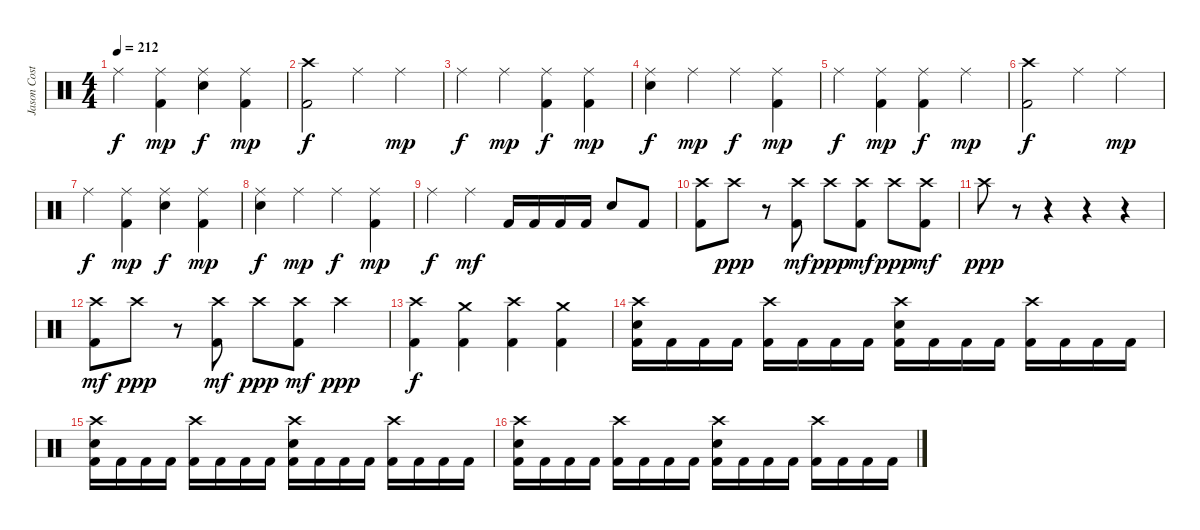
\track ("Jason Costa" "Jason Cost") {instrument percussion}
\staff {score}
\articulation defaults
\ts (4 4)
\tempo 212
\clef neutral
\ks c "Ride (middle)".4{dy f}
("Ride (middle)" "Kick (hit) 2").4{dy mp} ("Ride (middle)" "Electric Snare (hit)").4{dy f} ("Ride (middle)" "Kick (hit) 2").4{dy mp} |
("Crash high (hit)" "Kick (hit) 2").2{dy f} "Ride (middle)".4 "Ride (middle)".4{dy mp} |
"Ride (middle)".4{dy f} "Ride (middle)".4{dy mp} ("Ride (middle)" "Kick (hit) 2").4{dy f} ("Ride (middle)" "Kick (hit) 2").4{dy mp} |
("Ride (middle)" "Electric Snare (hit)").4{dy f} "Ride (middle)".4{dy mp} "Ride (middle)".4{dy f} ("Ride (middle)" "Kick (hit) 2").4{dy mp} |
"Ride (middle)".4{dy f} ("Ride (middle)" "Kick (hit) 2").4{dy mp} ("Ride (middle)" "Kick (hit) 2").4{dy f} "Ride (middle)".4{dy mp} |
("Crash high (hit)" "Kick (hit) 2").2{dy f} "Ride (middle)".4 "Ride (middle)".4{dy mp} |
"Ride (middle)".4{dy f} ("Ride (middle)" "Kick (hit) 2").4{dy mp} ("Ride (middle)" "Electric Snare (hit)").4{dy f} ("Ride (middle)" "Kick (hit) 2").4{dy mp} |
("Ride (middle)" "Electric Snare (hit)").4{dy f} "Ride (middle)".4{dy mp} "Ride (middle)".4{dy f} ("Ride (middle)" "Kick (hit) 2").4{dy mp} |
"Ride (middle)".4{dy f} "Ride (middle)".4{dy mf} "Kick (hit) 2".16 "Kick (hit) 2".16 "Kick (hit) 2".16 "Kick (hit) 2".16 "Electric Snare (hit)".8 "Kick (hit) 2".8 |
("Crash high (hit)" "Kick (hit) 2").8 "Crash high (hit)".8{dy ppp} r.8 ("Crash high (hit)" "Kick (hit) 2").8{dy mf} "Crash high (hit)".8{dy ppp} ("Crash high (hit)" "Kick (hit) 2").8{dy mf} "Crash high (hit)".8{dy ppp} ("Crash high (hit)" "Kick (hit) 2").8{dy mf} |
"Crash high (hit)".8{dy ppp} r.8 r.4 r.4 r.4 |
("Crash high (hit)" "Kick (hit) 2").8{dy mf} "Crash high (hit)".8{dy ppp} r.8 ("Crash high (hit)" "Kick (hit) 2").8{dy mf} "Crash high (hit)".8{dy ppp} ("Crash high (hit)" "Kick (hit) 2").8{dy mf} "Crash high (hit)".4{dy ppp} |
("Crash high (hit)" "Kick (hit) 2").4{dy f} ("Crash medium (hit)" "Kick (hit) 2").4 ("Crash high (hit)" "Kick (hit) 2").4 ("Crash medium (hit)" "Kick (hit) 2").4 |
("Crash high (hit)" "Electric Snare (hit)" "Kick (hit) 2").16 "Kick (hit) 2".16 "Kick (hit) 2".16 "Kick (hit) 2".16 ("Crash high (hit)" "Kick (hit) 2").16 "Kick (hit) 2".16 "Kick (hit) 2".16 "Kick (hit) 2".16 ("Crash high (hit)" "Electric Snare (hit)" "Kick (hit) 2").16 "Kick (hit) 2".16 "Kick (hit) 2".16 "Kick (hit) 2".16 ("Crash high (hit)" "Kick (hit) 2").16 "Kick (hit) 2".16 "Kick (hit) 2".16 "Kick (hit) 2".16 |
("Crash high (hit)" "Electric Snare (hit)" "Kick (hit) 2").16 "Kick (hit) 2".16 "Kick (hit) 2".16 "Kick (hit) 2".16 ("Crash high (hit)" "Kick (hit) 2").16 "Kick (hit) 2".16 "Kick (hit) 2".16 "Kick (hit) 2".16 ("Crash high (hit)" "Electric Snare (hit)" "Kick (hit) 2").16 "Kick (hit) 2".16 "Kick (hit) 2".16 "Kick (hit) 2".16 ("Crash high (hit)" "Kick (hit) 2").16 "Kick (hit) 2".16 "Kick (hit) 2".16 "Kick (hit) 2".16 |
("Crash high (hit)" "Electric Snare (hit)" "Kick (hit) 2").16 "Kick (hit) 2".16 "Kick (hit) 2".16 "Kick (hit) 2".16 ("Crash high (hit)" "Kick (hit) 2").16 "Kick (hit) 2".16 "Kick (hit) 2".16 "Kick (hit) 2".16 ("Crash high (hit)" "Electric Snare (hit)" "Kick (hit) 2").16 "Kick (hit) 2".16 "Kick (hit) 2".16 "Kick (hit) 2".16 ("Crash high (hit)" "Kick (hit) 2").16 "Kick (hit) 2".16 "Kick (hit) 2".16 "Kick (hit) 2".16
